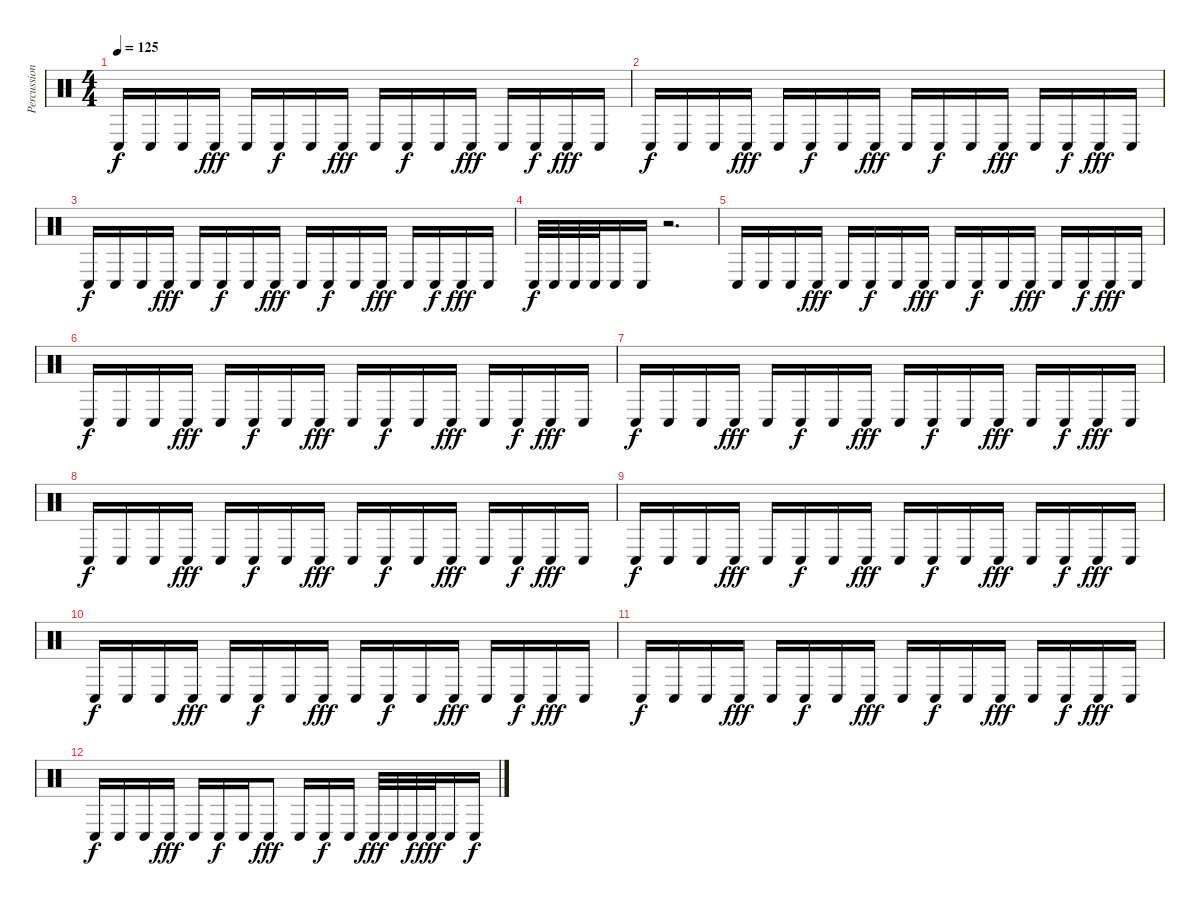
\track ("Percussion" "Percussion") {instrument percussion}
\staff {score}
\articulation defaults
\ts (4 4)
\tempo 125
\clef neutral
\ks c "Conga low (hit)".16{dy f} "Conga low (hit)".16 "Conga low (hit)".16 "Conga low (hit)".16{dy fff} "Conga low (hit)".16 "Conga low (hit)".16{dy f} "Conga low (hit)".16 "Conga low (hit)".16{dy fff} "Conga low (hit)".16 "Conga low (hit)".16{dy f} "Conga low (hit)".16 "Conga low (hit)".16{dy fff} "Conga low (hit)".16 "Conga low (hit)".16{dy f} "Conga low (hit)".16{dy fff} "Conga low (hit)".16
|
"Conga low (hit)".16{dy f} "Conga low (hit)".16 "Conga low (hit)".16 "Conga low (hit)".16{dy fff} "Conga low (hit)".16 "Conga low (hit)".16{dy f} "Conga low (hit)".16 "Conga low (hit)".16{dy fff} "Conga low (hit)".16 "Conga low (hit)".16{dy f} "Conga low (hit)".16 "Conga low (hit)".16{dy fff} "Conga low (hit)".16 "Conga low (hit)".16{dy f} "Conga low (hit)".16{dy fff} "Conga low (hit)".16 |
"Conga low (hit)".16{dy f} "Conga low (hit)".16 "Conga low (hit)".16 "Conga low (hit)".16{dy fff} "Conga low (hit)".16 "Conga low (hit)".16{dy f} "Conga low (hit)".16 "Conga low (hit)".16{dy fff} "Conga low (hit)".16 "Conga low (hit)".16{dy f} "Conga low (hit)".16 "Conga low (hit)".16{dy fff} "Conga low (hit)".16 "Conga low (hit)".16{dy f} "Conga low (hit)".16{dy fff} "Conga low (hit)".16 |
"Conga low (hit)".32{dy f} "Conga low (hit)".32 "Conga low (hit)".32 "Conga low (hit)".32 "Conga low (hit)".16 "Conga low (hit)".16 r.2{d} |
"Conga low (hit)".16 "Conga low (hit)".16 "Conga low (hit)".16 "Conga low (hit)".16{dy fff} "Conga low (hit)".16 "Conga low (hit)".16{dy f} "Conga low (hit)".16 "Conga low (hit)".16{dy fff} "Conga low (hit)".16 "Conga low (hit)".16{dy f} "Conga low (hit)".16 "Conga low (hit)".16{dy fff} "Conga low (hit)".16 "Conga low (hit)".16{dy f} "Conga low (hit)".16{dy fff} "Conga low (hit)".16 |
"Conga low (hit)".16{dy f} "Conga low (hit)".16 "Conga low (hit)".16 "Conga low (hit)".16{dy fff} "Conga low (hit)".16 "Conga low (hit)".16{dy f} "Conga low (hit)".16 "Conga low (hit)".16{dy fff} "Conga low (hit)".16 "Conga low (hit)".16{dy f} "Conga low (hit)".16 "Conga low (hit)".16{dy fff} "Conga low (hit)".16 "Conga low (hit)".16{dy f} "Conga low (hit)".16{dy fff} "Conga low (hit)".16 |
"Conga low (hit)".16{dy f} "Conga low (hit)".16 "Conga low (hit)".16 "Conga low (hit)".16{dy fff} "Conga low (hit)".16 "Conga low (hit)".16{dy f} "Conga low (hit)".16 "Conga low (hit)".16{dy fff} "Conga low (hit)".16 "Conga low (hit)".16{dy f} "Conga low (hit)".16 "Conga low (hit)".16{dy fff} "Conga low (hit)".16 "Conga low (hit)".16{dy f} "Conga low (hit)".16{dy fff} "Conga low (hit)".16 |
"Conga low (hit)".16{dy f} "Conga low (hit)".16 "Conga low (hit)".16 "Conga low (hit)".16{dy fff} "Conga low (hit)".16 "Conga low (hit)".16{dy f} "Conga low (hit)".16 "Conga low (hit)".16{dy fff} "Conga low (hit)".16 "Conga low (hit)".16{dy f} "Conga low (hit)".16 "Conga low (hit)".16{dy fff} "Conga low (hit)".16 "Conga low (hit)".16{dy f} "Conga low (hit)".16{dy fff} "Conga low (hit)".16 |
"Conga low (hit)".16{dy f} "Conga low (hit)".16 "Conga low (hit)".16 "Conga low (hit)".16{dy fff} "Conga low (hit)".16 "Conga low (hit)".16{dy f} "Conga low (hit)".16 "Conga low (hit)".16{dy fff} "Conga low (hit)".16 "Conga low (hit)".16{dy f} "Conga low (hit)".16 "Conga low (hit)".16{dy fff} "Conga low (hit)".16 "Conga low (hit)".16{dy f} "Conga low (hit)".16{dy fff} "Conga low (hit)".16 |
"Conga low (hit)".16{dy f} "Conga low (hit)".16 "Conga low (hit)".16 "Conga low (hit)".16{dy fff} "Conga low (hit)".16 "Conga low (hit)".16{dy f} "Conga low (hit)".16 "Conga low (hit)".16{dy fff} "Conga low (hit)".16 "Conga low (hit)".16{dy f} "Conga low (hit)".16 "Conga low (hit)".16{dy fff} "Conga low (hit)".16 "Conga low (hit)".16{dy f} "Conga low (hit)".16{dy fff} "Conga low (hit)".16 |
"Conga low (hit)".16{dy f} "Conga low (hit)".16 "Conga low (hit)".16 "Conga low (hit)".16{dy fff} "Conga low (hit)".16 "Conga low (hit)".16{dy f} "Conga low (hit)".16 "Conga low (hit)".16{dy fff} "Conga low (hit)".16 "Conga low (hit)".16{dy f} "Conga low (hit)".16 "Conga low (hit)".16{dy fff} "Conga low (hit)".16 "Conga low (hit)".16{dy f} "Conga low (hit)".16{dy fff} "Conga low (hit)".16 |
"Conga low (hit)".16{dy f} "Conga low (hit)".16 "Conga low (hit)".16 "Conga low (hit)".16{dy fff} "Conga low (hit)".16 "Conga low (hit)".16{dy f} "Conga low (hit)".16 "Conga low (hit)".8{dy fff} "Conga low (hit)".16 "Conga low (hit)".16{dy f} "Conga low (hit)".16 "Conga low (hit)".32{dy fff} "Conga low (hit)".32 "Conga low (hit)".32{dy f} "Conga low (hit)".32{dy fff} "Conga low (hit)".16 "Conga low (hit)".16{dy f}
